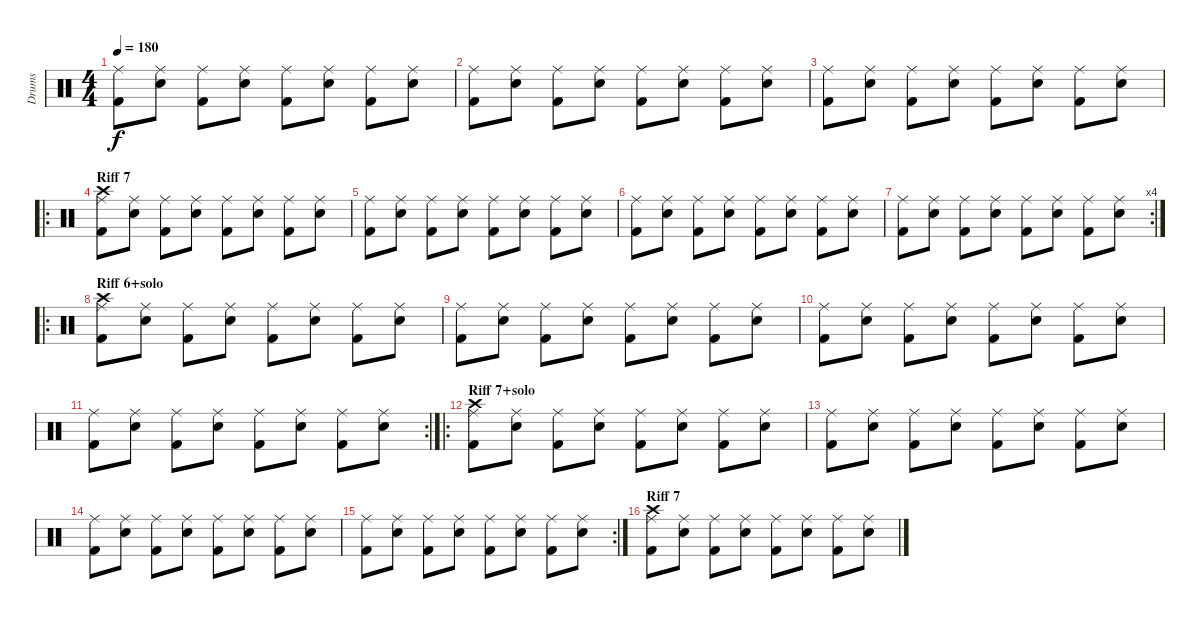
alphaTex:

\track ("Drums" "Drums") {instrument percussion}
\staff {score}
\articulation defaults
\ts (4 4)
\tempo 180
\clef neutral
\ks c
("Ride (middle)" "Kick (hit) 2").8{dy f} ("Ride (middle)" "Snare (hit) 2").8 ("Ride (middle)" "Kick (hit) 2").8 ("Ride (middle)" "Snare (hit) 2").8 ("Ride (middle)" "Kick (hit) 2").8 ("Ride (middle)" "Snare (hit) 2").8 ("Ride (middle)" "Kick (hit) 2").8 ("Ride (middle)" "Snare (hit) 2").8 |
("Ride (middle)" "Kick (hit) 2").8 ("Ride (middle)" "Snare (hit) 2").8 ("Ride (middle)" "Kick (hit) 2").8 ("Ride (middle)" "Snare (hit) 2").8 ("Ride (middle)" "Kick (hit) 2").8 ("Ride (middle)" "Snare (hit) 2").8 ("Ride (middle)" "Kick (hit) 2").8 ("Ride (middle)" "Snare (hit) 2").8 |
("Ride (middle)" "Kick (hit) 2").8 ("Ride (middle)" "Snare (hit) 2").8 ("Ride (middle)" "Kick (hit) 2").8 ("Ride (middle)" "Snare (hit) 2").8 ("Ride (middle)" "Kick (hit) 2").8 ("Ride (middle)" "Snare (hit) 2").8 ("Ride (middle)" "Kick (hit) 2").8 ("Ride (middle)" "Snare (hit) 2").8 |
\ro
\section ("" "Riff 7")
("Ride (middle)" "Crash high (hit)" "Kick (hit) 2").8 ("Ride (middle)" "Snare (hit) 2").8 ("Ride (middle)" "Kick (hit) 2").8 ("Ride (middle)" "Snare (hit) 2").8 ("Ride (middle)" "Kick (hit) 2").8 ("Ride (middle)" "Snare (hit) 2").8 ("Ride (middle)" "Kick (hit) 2").8 ("Ride (middle)" "Snare (hit) 2").8 |
("Ride (middle)" "Kick (hit) 2").8 ("Ride (middle)" "Snare (hit) 2").8 ("Ride (middle)" "Kick (hit) 2").8 ("Ride (middle)" "Snare (hit) 2").8 ("Ride (middle)" "Kick (hit) 2").8 ("Ride (middle)" "Snare (hit) 2").8 ("Ride (middle)" "Kick (hit) 2").8 ("Ride (middle)" "Snare (hit) 2").8 |
("Ride (middle)" "Kick (hit) 2").8 ("Ride (middle)" "Snare (hit) 2").8 ("Ride (middle)" "Kick (hit) 2").8 ("Ride (middle)" "Snare (hit) 2").8 ("Ride (middle)" "Kick (hit) 2").8 ("Ride (middle)" "Snare (hit) 2").8 ("Ride (middle)" "Kick (hit) 2").8 ("Ride (middle)" "Snare (hit) 2").8 |
\rc 4
("Ride (middle)" "Kick (hit) 2").8 ("Ride (middle)" "Snare (hit) 2").8 ("Ride (middle)" "Kick (hit) 2").8 ("Ride (middle)" "Snare (hit) 2").8 ("Ride (middle)" "Kick (hit) 2").8 ("Ride (middle)" "Snare (hit) 2").8 ("Ride (middle)" "Kick (hit) 2").8 ("Ride (middle)" "Snare (hit) 2").8 |
\ro
\section ("" "Riff 6+solo")
("Ride (middle)" "Crash high (hit)" "Kick (hit) 2").8 ("Ride (middle)" "Snare (hit) 2").8 ("Ride (middle)" "Kick (hit) 2").8 ("Ride (middle)" "Snare (hit) 2").8 ("Ride (middle)" "Kick (hit) 2").8 ("Ride (middle)" "Snare (hit) 2").8 ("Ride (middle)" "Kick (hit) 2").8 ("Ride (middle)" "Snare (hit) 2").8 |
("Ride (middle)" "Kick (hit) 2").8 ("Ride (middle)" "Snare (hit) 2").8 ("Ride (middle)" "Kick (hit) 2").8 ("Ride (middle)" "Snare (hit) 2").8 ("Ride (middle)" "Kick (hit) 2").8 ("Ride (middle)" "Snare (hit) 2").8 ("Ride (middle)" "Kick (hit) 2").8 ("Ride (middle)" "Snare (hit) 2").8 |
("Ride (middle)" "Kick (hit) 2").8 ("Ride (middle)" "Snare (hit) 2").8 ("Ride (middle)" "Kick (hit) 2").8 ("Ride (middle)" "Snare (hit) 2").8 ("Ride (middle)" "Kick (hit) 2").8 ("Ride (middle)" "Snare (hit) 2").8 ("Ride (middle)" "Kick (hit) 2").8 ("Ride (middle)" "Snare (hit) 2").8 |
\rc 2
("Ride (middle)" "Kick (hit) 2").8 ("Ride (middle)" "Snare (hit) 2").8 ("Ride (middle)" "Kick (hit) 2").8 ("Ride (middle)" "Snare (hit) 2").8 ("Ride (middle)" "Kick (hit) 2").8 ("Ride (middle)" "Snare (hit) 2").8 ("Ride (middle)" "Kick (hit) 2").8 ("Ride (middle)" "Snare (hit) 2").8 |
\ro
\section ("" "Riff 7+solo")
("Ride (middle)" "Crash high (hit)" "Kick (hit) 2").8 ("Ride (middle)" "Snare (hit) 2").8 ("Ride (middle)" "Kick (hit) 2").8 ("Ride (middle)" "Snare (hit) 2").8 ("Ride (middle)" "Kick (hit) 2").8 ("Ride (middle)" "Snare (hit) 2").8 ("Ride (middle)" "Kick (hit) 2").8 ("Ride (middle)" "Snare (hit) 2").8 |
("Ride (middle)" "Kick (hit) 2").8 ("Ride (middle)" "Snare (hit) 2").8 ("Ride (middle)" "Kick (hit) 2").8 ("Ride (middle)" "Snare (hit) 2").8 ("Ride (middle)" "Kick (hit) 2").8 ("Ride (middle)" "Snare (hit) 2").8 ("Ride (middle)" "Kick (hit) 2").8 ("Ride (middle)" "Snare (hit) 2").8 |
("Ride (middle)" "Kick (hit) 2").8 ("Ride (middle)" "Snare (hit) 2").8 ("Ride (middle)" "Kick (hit) 2").8 ("Ride (middle)" "Snare (hit) 2").8 ("Ride (middle)" "Kick (hit) 2").8 ("Ride (middle)" "Snare (hit) 2").8 ("Ride (middle)" "Kick (hit) 2").8 ("Ride (middle)" "Snare (hit) 2").8 |
\rc 2
("Ride (middle)" "Kick (hit) 2").8 ("Ride (middle)" "Snare (hit) 2").8 ("Ride (middle)" "Kick (hit) 2").8 ("Ride (middle)" "Snare (hit) 2").8 ("Ride (middle)" "Kick (hit) 2").8 ("Ride (middle)" "Snare (hit) 2").8 ("Ride (middle)" "Kick (hit) 2").8 ("Ride (middle)" "Snare (hit) 2").8 |
\section ("" "Riff 7")
("Ride (middle)" "Crash high (hit)" "Kick (hit) 2").8 ("Ride (middle)" "Snare (hit) 2").8 ("Ride (middle)" "Kick (hit) 2").8 ("Ride (middle)" "Snare (hit) 2").8 ("Ride (middle)" "Kick (hit) 2").8 ("Ride (middle)" "Snare (hit) 2").8 ("Ride (middle)" "Kick (hit) 2").8 ("Ride (middle)" "Snare (hit) 2").8
